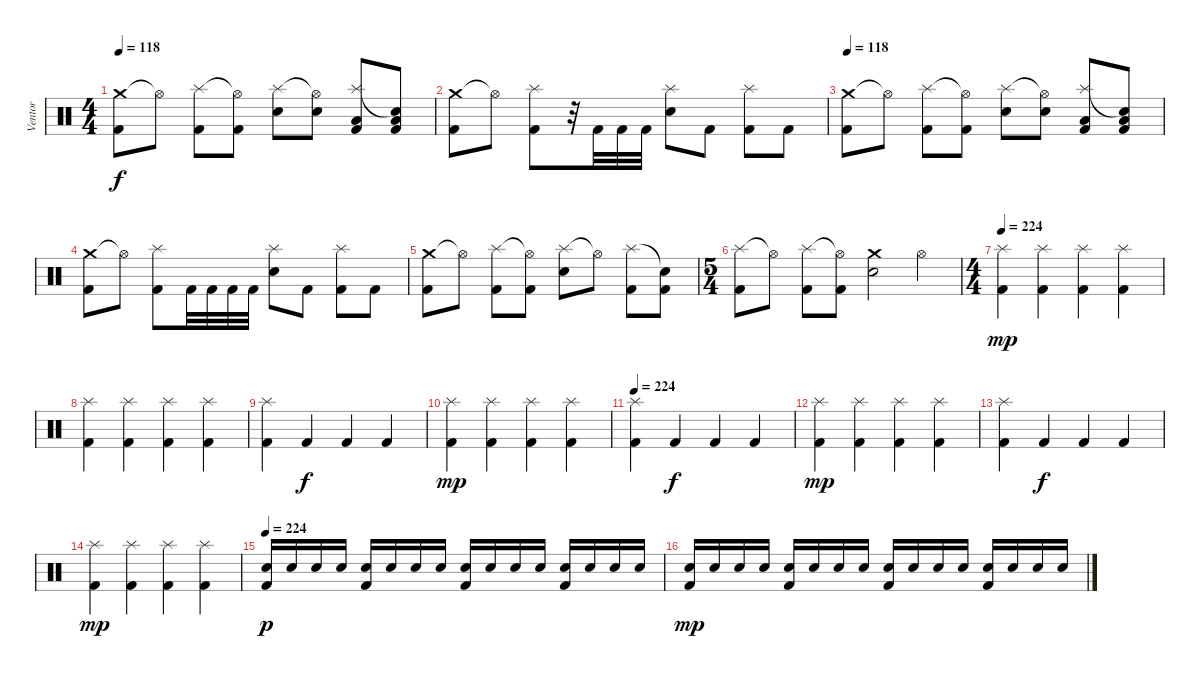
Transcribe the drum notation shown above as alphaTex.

\track ("Ventor" "Ventor") {instrument percussion}
\staff {score}
\articulation defaults
\ts (4 4)
\tempo 118
\clef neutral
\ks c
("Crash medium (hit)" "Kick (hit) 2").8{dy f} "Hi-Hat (open)"{t}.8 ("Splash (hit)" "Kick (hit) 2").8 ("Hi-Hat (open)"{t} "Kick (hit) 2").8 ("Splash (hit)" "Electric Snare (hit)").8 ("Hi-Hat (open)"{t} "Electric Snare (hit)").8 ("Splash (hit)" "Low Tom (hit)" "Kick (hit) 2").8 ("Snare (hit)"{t} "Low Floor Tom (hit)" "Kick (hit) 2").8 |
("Crash medium (hit)" "Kick (hit) 2").8 "Hi-Hat (open)"{t}.8 ("Splash (hit)" "Kick (hit) 2").8 r.32 "Kick (hit) 2".32 "Kick (hit) 2".32 "Kick (hit) 2".32 ("Splash (hit)" "Electric Snare (hit)").8 "Kick (hit) 2".8 ("Splash (hit)" "Kick (hit) 2").8 "Kick (hit) 2".8 |
\tempo 118
("Crash medium (hit)" "Kick (hit) 2").8 "Hi-Hat (open)"{t}.8 ("Splash (hit)" "Kick (hit) 2").8 ("Hi-Hat (open)"{t} "Kick (hit) 2").8 ("Splash (hit)" "Electric Snare (hit)").8 ("Hi-Hat (open)"{t} "Electric Snare (hit)").8 ("Splash (hit)" "Low Tom (hit)" "Kick (hit) 2").8 ("Snare (hit)"{t} "Low Floor Tom (hit)" "Kick (hit) 2").8 |
("Crash medium (hit)" "Kick (hit) 2").8 "Hi-Hat (open)"{t}.8 ("Splash (hit)" "Kick (hit) 2").8 "Kick (hit) 2".32 "Kick (hit) 2".32 "Kick (hit) 2".32 "Kick (hit) 2".32 ("Splash (hit)" "Electric Snare (hit)").8 "Kick (hit) 2".8 ("Splash (hit)" "Kick (hit) 2").8 "Kick (hit) 2".8 |
("Crash medium (hit)" "Kick (hit) 2").8 "Hi-Hat (open)"{t}.8 ("Splash (hit)" "Kick (hit) 2").8 ("Hi-Hat (open)"{t} "Kick (hit) 2").8 ("Splash (hit)" "Electric Snare (hit)").8 "Hi-Hat (open)"{t}.8 ("Splash (hit)" "Kick (hit) 2").8 ("Snare (hit)"{t} "Kick (hit) 2").8 |
\ts (5 4)
("Splash (hit)" "Kick (hit) 2").8 "Hi-Hat (open)"{t}.8 ("Splash (hit)" "Kick (hit) 2").8 ("Hi-Hat (open)"{t} "Kick (hit) 2").8 ("Crash medium (hit)" "Electric Snare (hit)").2 "Hi-Hat (open)".4 |
\ts (4 4)
\tempo 224
("Splash (hit)" "Kick (hit) 2").4{dy mp} ("Splash (hit)" "Kick (hit) 2").4 ("Splash (hit)" "Kick (hit) 2").4 ("Splash (hit)" "Kick (hit) 2").4 |
("Splash (hit)" "Kick (hit) 2").4 ("Splash (hit)" "Kick (hit) 2").4 ("Splash (hit)" "Kick (hit) 2").4 ("Splash (hit)" "Kick (hit) 2").4 |
("Splash (hit)" "Kick (hit) 2").4 "Kick (hit) 2".4{dy f} "Kick (hit) 2".4 "Kick (hit) 2".4 |
("Splash (hit)" "Kick (hit) 2").4{dy mp} ("Splash (hit)" "Kick (hit) 2").4 ("Splash (hit)" "Kick (hit) 2").4 ("Splash (hit)" "Kick (hit) 2").4 |
\tempo 224
("Splash (hit)" "Kick (hit) 2").4 "Kick (hit) 2".4{dy f} "Kick (hit) 2".4 "Kick (hit) 2".4 |
("Splash (hit)" "Kick (hit) 2").4{dy mp} ("Splash (hit)" "Kick (hit) 2").4 ("Splash (hit)" "Kick (hit) 2").4 ("Splash (hit)" "Kick (hit) 2").4 |
("Splash (hit)" "Kick (hit) 2").4 "Kick (hit) 2".4{dy f} "Kick (hit) 2".4 "Kick (hit) 2".4 |
("Splash (hit)" "Kick (hit) 2").4{dy mp} ("Splash (hit)" "Kick (hit) 2").4 ("Splash (hit)" "Kick (hit) 2").4 ("Splash (hit)" "Kick (hit) 2").4 |
\tempo 224
("Electric Snare (hit)" "Kick (hit) 2").16{dy p} "Electric Snare (hit)".16 "Electric Snare (hit)".16 "Electric Snare (hit)".16 ("Electric Snare (hit)" "Kick (hit) 2").16 "Electric Snare (hit)".16 "Electric Snare (hit)".16 "Electric Snare (hit)".16 ("Electric Snare (hit)" "Kick (hit) 2").16 "Electric Snare (hit)".16 "Electric Snare (hit)".16 "Electric Snare (hit)".16 ("Electric Snare (hit)" "Kick (hit) 2").16 "Electric Snare (hit)".16 "Electric Snare (hit)".16 "Electric Snare (hit)".16 |
("Electric Snare (hit)" "Kick (hit) 2").16{dy mp} "Electric Snare (hit)".16 "Electric Snare (hit)".16 "Electric Snare (hit)".16 ("Electric Snare (hit)" "Kick (hit) 2").16 "Electric Snare (hit)".16 "Electric Snare (hit)".16 "Electric Snare (hit)".16 ("Electric Snare (hit)" "Kick (hit) 2").16 "Electric Snare (hit)".16 "Electric Snare (hit)".16 "Electric Snare (hit)".16 ("Electric Snare (hit)" "Kick (hit) 2").16 "Electric Snare (hit)".16 "Electric Snare (hit)".16 "Electric Snare (hit)".16
